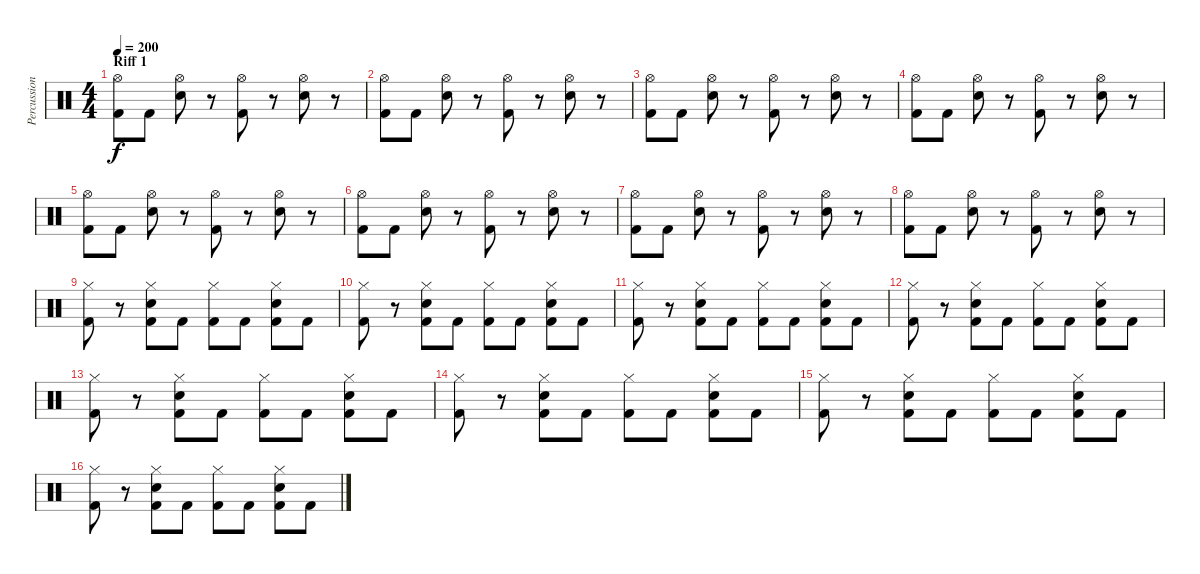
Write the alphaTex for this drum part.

\track ("Percussions ( Brylle )" "Percussion") {instrument percussion}
\staff {score}
\articulation defaults
\ts (4 4)
\section ("" "Riff 1")
\tempo 200
\clef neutral
\ks c
("Hi-Hat (open)" "Kick (hit) 2").8{dy f} "Kick (hit) 2".8 ("Hi-Hat (open)" "Electric Snare (hit)").8 r.8 ("Hi-Hat (open)" "Kick (hit) 2").8 r.8 ("Hi-Hat (open)" "Electric Snare (hit)").8 r.8 |
("Hi-Hat (open)" "Kick (hit) 2").8 "Kick (hit) 2".8 ("Hi-Hat (open)" "Electric Snare (hit)").8 r.8 ("Hi-Hat (open)" "Kick (hit) 2").8 r.8 ("Hi-Hat (open)" "Electric Snare (hit)").8 r.8 |
("Hi-Hat (open)" "Kick (hit) 2").8 "Kick (hit) 2".8 ("Hi-Hat (open)" "Electric Snare (hit)").8 r.8 ("Hi-Hat (open)" "Kick (hit) 2").8 r.8 ("Hi-Hat (open)" "Electric Snare (hit)").8 r.8 |
("Hi-Hat (open)" "Kick (hit) 2").8 "Kick (hit) 2".8 ("Hi-Hat (open)" "Electric Snare (hit)").8 r.8 ("Hi-Hat (open)" "Kick (hit) 2").8 r.8 ("Hi-Hat (open)" "Electric Snare (hit)").8 r.8 |
("Hi-Hat (open)" "Kick (hit) 2").8 "Kick (hit) 2".8 ("Hi-Hat (open)" "Electric Snare (hit)").8 r.8 ("Hi-Hat (open)" "Kick (hit) 2").8 r.8 ("Hi-Hat (open)" "Electric Snare (hit)").8 r.8 |
("Hi-Hat (open)" "Kick (hit) 2").8 "Kick (hit) 2".8 ("Hi-Hat (open)" "Electric Snare (hit)").8 r.8 ("Hi-Hat (open)" "Kick (hit) 2").8 r.8 ("Hi-Hat (open)" "Electric Snare (hit)").8 r.8 |
("Hi-Hat (open)" "Kick (hit) 2").8 "Kick (hit) 2".8 ("Hi-Hat (open)" "Electric Snare (hit)").8 r.8 ("Hi-Hat (open)" "Kick (hit) 2").8 r.8 ("Hi-Hat (open)" "Electric Snare (hit)").8 r.8 |
("Hi-Hat (open)" "Kick (hit) 2").8 "Kick (hit) 2".8 ("Hi-Hat (open)" "Electric Snare (hit)").8 r.8 ("Hi-Hat (open)" "Kick (hit) 2").8 r.8 ("Hi-Hat (open)" "Electric Snare (hit)").8 r.8 |
("Hi-Hat (closed)" "Kick (hit) 2").8 r.8 ("Hi-Hat (closed)" "Electric Snare (hit)" "Kick (hit) 2").8 "Kick (hit) 2".8 ("Hi-Hat (closed)" "Kick (hit) 2").8 "Kick (hit) 2".8 ("Hi-Hat (closed)" "Electric Snare (hit)" "Kick (hit) 2").8 "Kick (hit) 2".8 |
("Hi-Hat (closed)" "Kick (hit) 2").8 r.8 ("Hi-Hat (closed)" "Electric Snare (hit)" "Kick (hit) 2").8 "Kick (hit) 2".8 ("Hi-Hat (closed)" "Kick (hit) 2").8 "Kick (hit) 2".8 ("Hi-Hat (closed)" "Electric Snare (hit)" "Kick (hit) 2").8 "Kick (hit) 2".8 |
("Hi-Hat (closed)" "Kick (hit) 2").8 r.8 ("Hi-Hat (closed)" "Electric Snare (hit)" "Kick (hit) 2").8 "Kick (hit) 2".8 ("Hi-Hat (closed)" "Kick (hit) 2").8 "Kick (hit) 2".8 ("Hi-Hat (closed)" "Electric Snare (hit)" "Kick (hit) 2").8 "Kick (hit) 2".8 |
("Hi-Hat (closed)" "Kick (hit) 2").8 r.8 ("Hi-Hat (closed)" "Electric Snare (hit)" "Kick (hit) 2").8 "Kick (hit) 2".8 ("Hi-Hat (closed)" "Kick (hit) 2").8 "Kick (hit) 2".8 ("Hi-Hat (closed)" "Electric Snare (hit)" "Kick (hit) 2").8 "Kick (hit) 2".8 |
("Hi-Hat (closed)" "Kick (hit) 2").8 r.8 ("Hi-Hat (closed)" "Electric Snare (hit)" "Kick (hit) 2").8 "Kick (hit) 2".8 ("Hi-Hat (closed)" "Kick (hit) 2").8 "Kick (hit) 2".8 ("Hi-Hat (closed)" "Electric Snare (hit)" "Kick (hit) 2").8 "Kick (hit) 2".8 |
("Hi-Hat (closed)" "Kick (hit) 2").8 r.8 ("Hi-Hat (closed)" "Electric Snare (hit)" "Kick (hit) 2").8 "Kick (hit) 2".8 ("Hi-Hat (closed)" "Kick (hit) 2").8 "Kick (hit) 2".8 ("Hi-Hat (closed)" "Electric Snare (hit)" "Kick (hit) 2").8 "Kick (hit) 2".8 |
("Hi-Hat (closed)" "Kick (hit) 2").8 r.8 ("Hi-Hat (closed)" "Electric Snare (hit)" "Kick (hit) 2").8 "Kick (hit) 2".8 ("Hi-Hat (closed)" "Kick (hit) 2").8 "Kick (hit) 2".8 ("Hi-Hat (closed)" "Electric Snare (hit)" "Kick (hit) 2").8 "Kick (hit) 2".8 |
("Hi-Hat (closed)" "Kick (hit) 2").8 r.8 ("Hi-Hat (closed)" "Electric Snare (hit)" "Kick (hit) 2").8 "Kick (hit) 2".8 ("Hi-Hat (closed)" "Kick (hit) 2").8 "Kick (hit) 2".8 ("Hi-Hat (closed)" "Electric Snare (hit)" "Kick (hit) 2").8 "Kick (hit) 2".8
